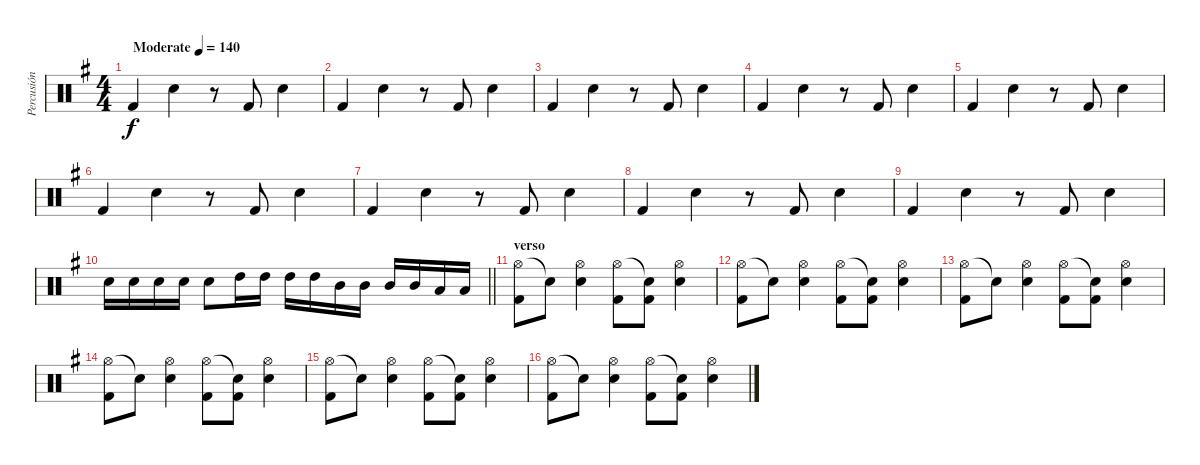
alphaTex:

\track ("Percusión" "Percusión") {instrument percussion}
\staff {score}
\articulation defaults
\ts (4 4)
\tempo (140 "Moderate")
\clef neutral
\ks g "Kick (hit) 2".4{dy f} "Snare (hit) 2".4
r.8 "Kick (hit) 2".8 "Snare (hit) 2".4 |
"Kick (hit) 2".4 "Snare (hit) 2".4 r.8 "Kick (hit) 2".8 "Snare (hit) 2".4 |
"Kick (hit) 2".4 "Snare (hit) 2".4 r.8 "Kick (hit) 2".8 "Snare (hit) 2".4 |
"Kick (hit) 2".4 "Snare (hit) 2".4 r.8 "Kick (hit) 2".8 "Snare (hit) 2".4 |
"Kick (hit) 2".4 "Snare (hit) 2".4 r.8 "Kick (hit) 2".8 "Snare (hit) 2".4 |
"Kick (hit) 2".4 "Snare (hit) 2".4 r.8 "Kick (hit) 2".8 "Snare (hit) 2".4 |
"Kick (hit) 2".4 "Snare (hit) 2".4 r.8 "Kick (hit) 2".8 "Snare (hit) 2".4 |
"Kick (hit) 2".4 "Snare (hit) 2".4 r.8 "Kick (hit) 2".8 "Snare (hit) 2".4 |
"Kick (hit) 2".4 "Snare (hit) 2".4 r.8 "Kick (hit) 2".8 "Snare (hit) 2".4 |
\barLineRight lightlight "Snare (hit) 2".16 "Snare (hit) 2".16 "Snare (hit) 2".16 "Snare (hit) 2".16 "Snare (hit) 2".8 "High Tom (hit)".16 "High Tom (hit)".16 "High Tom (hit)".16 "High Tom (hit)".16 "Mid Tom (hit)".16 "Mid Tom (hit)".16 "Mid Tom (hit)".16 "Mid Tom (hit)".16 "Low Tom (hit)".16 "Low Tom (hit)".16
|
\section ("" "verso")
("Hi-Hat (open)" "Kick (hit) 2").8 "Snare (hit)"{t}.8 ("Hi-Hat (open)" "Electric Snare (hit)").4 ("Hi-Hat (open)" "Kick (hit) 2").8 ("Snare (hit)"{t} "Kick (hit) 2").8 ("Hi-Hat (open)" "Electric Snare (hit)").4 |
("Hi-Hat (open)" "Kick (hit) 2").8 "Snare (hit)"{t}.8 ("Hi-Hat (open)" "Electric Snare (hit)").4 ("Hi-Hat (open)" "Kick (hit) 2").8 ("Snare (hit)"{t} "Kick (hit) 2").8 ("Hi-Hat (open)" "Electric Snare (hit)").4 |
("Hi-Hat (open)" "Kick (hit) 2").8 "Snare (hit)"{t}.8 ("Hi-Hat (open)" "Electric Snare (hit)").4 ("Hi-Hat (open)" "Kick (hit) 2").8 ("Snare (hit)"{t} "Kick (hit) 2").8 ("Hi-Hat (open)" "Electric Snare (hit)").4 |
("Hi-Hat (open)" "Kick (hit) 2").8 "Snare (hit)"{t}.8 ("Hi-Hat (open)" "Electric Snare (hit)").4 ("Hi-Hat (open)" "Kick (hit) 2").8 ("Snare (hit)"{t} "Kick (hit) 2").8 ("Hi-Hat (open)" "Electric Snare (hit)").4 |
("Hi-Hat (open)" "Kick (hit) 2").8 "Snare (hit)"{t}.8 ("Hi-Hat (open)" "Electric Snare (hit)").4 ("Hi-Hat (open)" "Kick (hit) 2").8 ("Snare (hit)"{t} "Kick (hit) 2").8 ("Hi-Hat (open)" "Electric Snare (hit)").4 |
("Hi-Hat (open)" "Kick (hit) 2").8 "Snare (hit)"{t}.8 ("Hi-Hat (open)" "Electric Snare (hit)").4 ("Hi-Hat (open)" "Kick (hit) 2").8 ("Snare (hit)"{t} "Kick (hit) 2").8 ("Hi-Hat (open)" "Electric Snare (hit)").4
